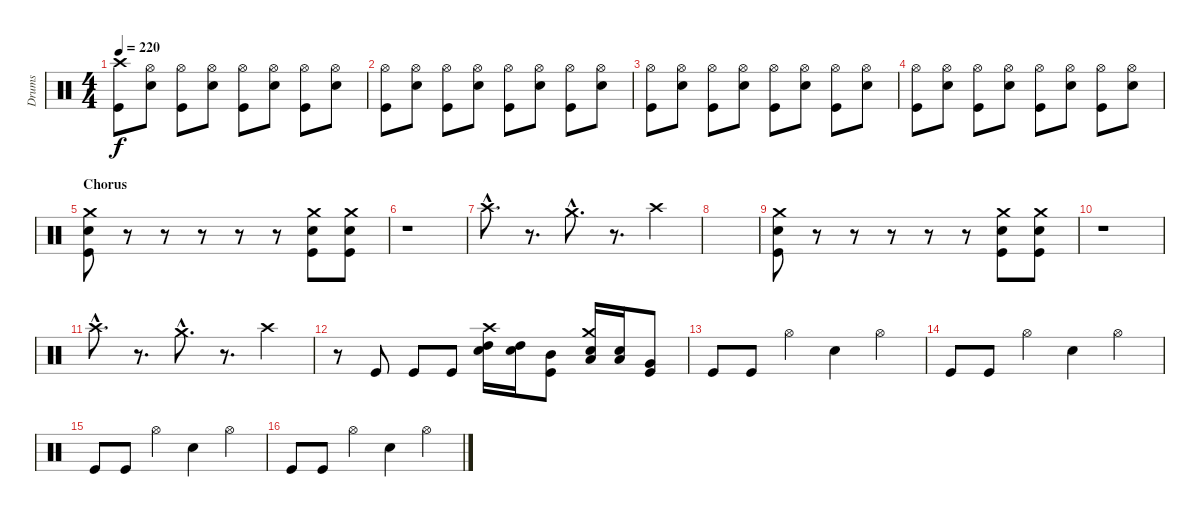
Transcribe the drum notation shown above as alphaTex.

\track ("Drums" "Drums") {instrument percussion}
\staff {score}
\articulation defaults
\ts (4 4)
\tempo 220
\clef neutral
\ks c
("Crash high (hit)" "Kick (hit)").8{dy f} ("Hi-Hat (open)" "Electric Snare (hit)").8 ("Hi-Hat (open)" "Kick (hit)").8 ("Hi-Hat (open)" "Electric Snare (hit)").8 ("Hi-Hat (open)" "Kick (hit)").8 ("Hi-Hat (open)" "Electric Snare (hit)").8 ("Hi-Hat (open)" "Kick (hit)").8 ("Hi-Hat (open)" "Electric Snare (hit)").8 |
("Hi-Hat (open)" "Kick (hit)").8 ("Hi-Hat (open)" "Electric Snare (hit)").8 ("Hi-Hat (open)" "Kick (hit)").8 ("Hi-Hat (open)" "Electric Snare (hit)").8 ("Hi-Hat (open)" "Kick (hit)").8 ("Hi-Hat (open)" "Electric Snare (hit)").8 ("Hi-Hat (open)" "Kick (hit)").8 ("Hi-Hat (open)" "Electric Snare (hit)").8 |
("Hi-Hat (open)" "Kick (hit)").8 ("Hi-Hat (open)" "Electric Snare (hit)").8 ("Hi-Hat (open)" "Kick (hit)").8 ("Hi-Hat (open)" "Electric Snare (hit)").8 ("Hi-Hat (open)" "Kick (hit)").8 ("Hi-Hat (open)" "Electric Snare (hit)").8 ("Hi-Hat (open)" "Kick (hit)").8 ("Hi-Hat (open)" "Electric Snare (hit)").8 |
("Hi-Hat (open)" "Kick (hit)").8 ("Hi-Hat (open)" "Electric Snare (hit)").8 ("Hi-Hat (open)" "Kick (hit)").8 ("Hi-Hat (open)" "Electric Snare (hit)").8 ("Hi-Hat (open)" "Kick (hit)").8 ("Hi-Hat (open)" "Electric Snare (hit)").8 ("Hi-Hat (open)" "Kick (hit)").8 ("Hi-Hat (open)" "Electric Snare (hit)").8 |
\section ("" "Chorus")
("Crash medium (hit)" "Electric Snare (hit)" "Kick (hit)").8 r.8 r.8 r.8 r.8 r.8 ("Crash medium (hit)" "Electric Snare (hit)" "Kick (hit)").8 ("Crash medium (hit)" "Electric Snare (hit)" "Kick (hit)").8 |
r.1 |
"Crash high (hit)"{hac}.8{d} r.8{d} "Crash medium (hit)"{hac}.8{d} r.8{d} "Crash high (hit)".4 |
|
("Crash medium (hit)" "Electric Snare (hit)" "Kick (hit)").8 r.8 r.8 r.8 r.8 r.8 ("Crash medium (hit)" "Electric Snare (hit)" "Kick (hit)").8 ("Crash medium (hit)" "Electric Snare (hit)" "Kick (hit)").8 |
r.1 |
"Crash high (hit)"{hac}.8{d} r.8{d} "Crash medium (hit)"{hac}.8{d} r.8{d} "Crash high (hit)".4 |
r.8 "Kick (hit)".8 "Kick (hit)".8 "Kick (hit)".8 ("Crash high (hit)" "High Tom (hit)" "Electric Snare (hit)").16 ("High Tom (hit)" "Electric Snare (hit)").16 ("Mid Tom (hit)" "Kick (hit)").8 ("Crash medium (hit)" "Low Tom (hit)" "Electric Snare (hit)").16 ("Low Tom (hit)" "Electric Snare (hit)").16 ("Very Low Tom (hit)" "Kick (hit)").8 |
"Kick (hit)".8 "Kick (hit)".8 "Hi-Hat (open)".4 "Electric Snare (hit)".4 "Hi-Hat (open)".4 |
"Kick (hit)".8 "Kick (hit)".8 "Hi-Hat (open)".4 "Electric Snare (hit)".4 "Hi-Hat (open)".4 |
"Kick (hit)".8 "Kick (hit)".8 "Hi-Hat (open)".4 "Electric Snare (hit)".4 "Hi-Hat (open)".4 |
"Kick (hit)".8 "Kick (hit)".8 "Hi-Hat (open)".4 "Electric Snare (hit)".4 "Hi-Hat (open)".4
